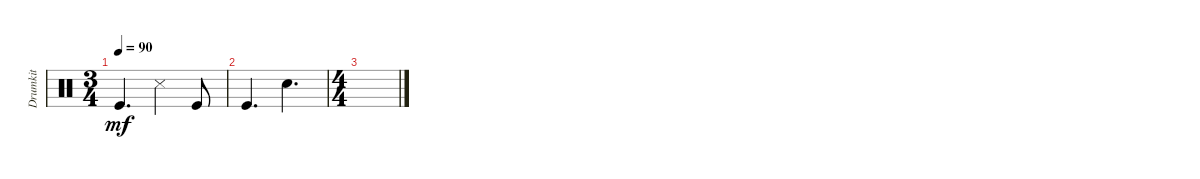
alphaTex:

\track ("Drumkit" "Drumkit") {instrument percussion}
\staff {score}
\articulation defaults
\ts (3 4)
\tempo 90
\clef neutral
\ks c "Kick (hit)".4{d dy mf} "Snare (side stick) 3".4 "Kick (hit)".8
|
"Kick (hit)".4{d} "Snare (hit) 2".4{d} |
\ts (4 4)
